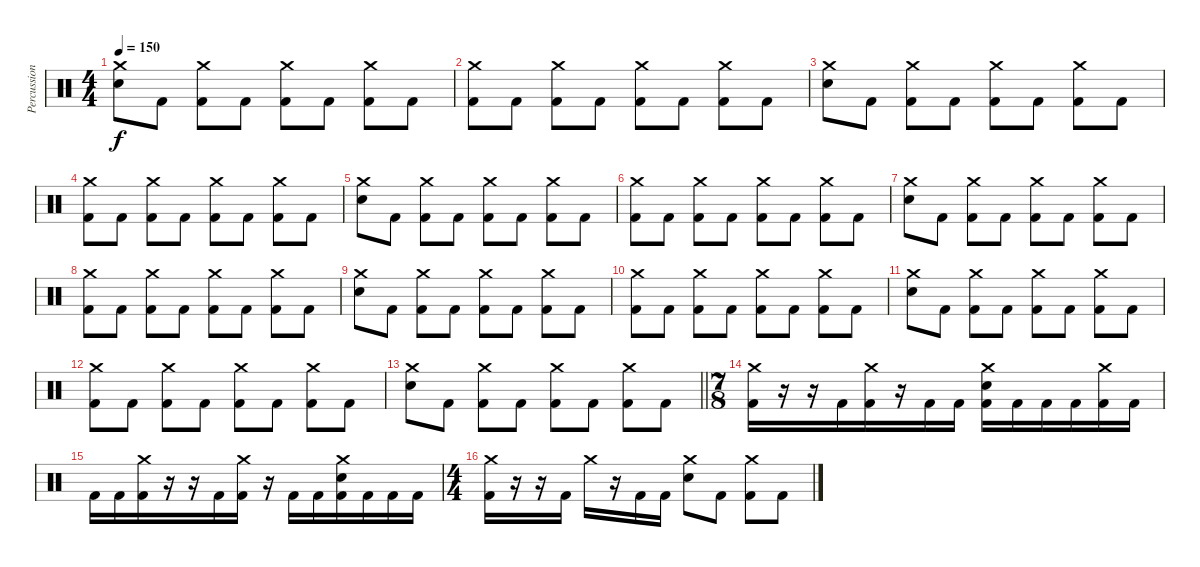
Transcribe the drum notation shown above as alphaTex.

\track ("Percussion" "Percussion") {instrument percussion}
\staff {score}
\articulation defaults
\ts (4 4)
\tempo 150
\clef neutral
\ks c
("Crash medium (hit)" "Electric Snare (hit)").8{dy f} "Kick (hit) 2".8 ("Crash medium (hit)" "Kick (hit) 2").8 "Kick (hit) 2".8 ("Crash medium (hit)" "Kick (hit) 2").8 "Kick (hit) 2".8 ("Crash medium (hit)" "Kick (hit) 2").8 "Kick (hit) 2".8 |
("Crash medium (hit)" "Kick (hit) 2").8 "Kick (hit) 2".8 ("Crash medium (hit)" "Kick (hit) 2").8 "Kick (hit) 2".8 ("Crash medium (hit)" "Kick (hit) 2").8 "Kick (hit) 2".8 ("Crash medium (hit)" "Kick (hit) 2").8 "Kick (hit) 2".8 |
("Crash medium (hit)" "Electric Snare (hit)").8 "Kick (hit) 2".8 ("Crash medium (hit)" "Kick (hit) 2").8 "Kick (hit) 2".8 ("Crash medium (hit)" "Kick (hit) 2").8 "Kick (hit) 2".8 ("Crash medium (hit)" "Kick (hit) 2").8 "Kick (hit) 2".8 |
("Crash medium (hit)" "Kick (hit) 2").8 "Kick (hit) 2".8 ("Crash medium (hit)" "Kick (hit) 2").8 "Kick (hit) 2".8 ("Crash medium (hit)" "Kick (hit) 2").8 "Kick (hit) 2".8 ("Crash medium (hit)" "Kick (hit) 2").8 "Kick (hit) 2".8 |
("Crash medium (hit)" "Electric Snare (hit)").8 "Kick (hit) 2".8 ("Crash medium (hit)" "Kick (hit) 2").8 "Kick (hit) 2".8 ("Crash medium (hit)" "Kick (hit) 2").8 "Kick (hit) 2".8 ("Crash medium (hit)" "Kick (hit) 2").8 "Kick (hit) 2".8 |
("Crash medium (hit)" "Kick (hit) 2").8 "Kick (hit) 2".8 ("Crash medium (hit)" "Kick (hit) 2").8 "Kick (hit) 2".8 ("Crash medium (hit)" "Kick (hit) 2").8 "Kick (hit) 2".8 ("Crash medium (hit)" "Kick (hit) 2").8 "Kick (hit) 2".8 |
("Crash medium (hit)" "Electric Snare (hit)").8 "Kick (hit) 2".8 ("Crash medium (hit)" "Kick (hit) 2").8 "Kick (hit) 2".8 ("Crash medium (hit)" "Kick (hit) 2").8 "Kick (hit) 2".8 ("Crash medium (hit)" "Kick (hit) 2").8 "Kick (hit) 2".8 |
("Crash medium (hit)" "Kick (hit) 2").8 "Kick (hit) 2".8 ("Crash medium (hit)" "Kick (hit) 2").8 "Kick (hit) 2".8 ("Crash medium (hit)" "Kick (hit) 2").8 "Kick (hit) 2".8 ("Crash medium (hit)" "Kick (hit) 2").8 "Kick (hit) 2".8 |
("Crash medium (hit)" "Electric Snare (hit)").8 "Kick (hit) 2".8 ("Crash medium (hit)" "Kick (hit) 2").8 "Kick (hit) 2".8 ("Crash medium (hit)" "Kick (hit) 2").8 "Kick (hit) 2".8 ("Crash medium (hit)" "Kick (hit) 2").8 "Kick (hit) 2".8 |
("Crash medium (hit)" "Kick (hit) 2").8 "Kick (hit) 2".8 ("Crash medium (hit)" "Kick (hit) 2").8 "Kick (hit) 2".8 ("Crash medium (hit)" "Kick (hit) 2").8 "Kick (hit) 2".8 ("Crash medium (hit)" "Kick (hit) 2").8 "Kick (hit) 2".8 |
("Crash medium (hit)" "Electric Snare (hit)").8 "Kick (hit) 2".8 ("Crash medium (hit)" "Kick (hit) 2").8 "Kick (hit) 2".8 ("Crash medium (hit)" "Kick (hit) 2").8 "Kick (hit) 2".8 ("Crash medium (hit)" "Kick (hit) 2").8 "Kick (hit) 2".8 |
("Crash medium (hit)" "Kick (hit) 2").8 "Kick (hit) 2".8 ("Crash medium (hit)" "Kick (hit) 2").8 "Kick (hit) 2".8 ("Crash medium (hit)" "Kick (hit) 2").8 "Kick (hit) 2".8 ("Crash medium (hit)" "Kick (hit) 2").8 "Kick (hit) 2".8 |
\barLineRight lightlight
("Crash medium (hit)" "Electric Snare (hit)").8 "Kick (hit) 2".8 ("Crash medium (hit)" "Kick (hit) 2").8 "Kick (hit) 2".8 ("Crash medium (hit)" "Kick (hit) 2").8 "Kick (hit) 2".8 ("Crash medium (hit)" "Kick (hit) 2").8 "Kick (hit) 2".8 |
\ts (7 8)
\section ("" "")
("Crash medium (hit)" "Kick (hit) 2").16 r.16 r.16 "Kick (hit) 2".16 ("Crash medium (hit)" "Kick (hit) 2").16 r.16 "Kick (hit) 2".16 "Kick (hit) 2".16 ("Crash medium (hit)" "Electric Snare (hit)" "Kick (hit) 2").16 "Kick (hit) 2".16 "Kick (hit) 2".16 "Kick (hit) 2".16 ("Crash medium (hit)" "Kick (hit) 2").16 "Kick (hit) 2".16 |
"Kick (hit) 2".16 "Kick (hit) 2".16 ("Crash medium (hit)" "Kick (hit) 2").16 r.16 r.16 "Kick (hit) 2".16 ("Crash medium (hit)" "Kick (hit) 2").16 r.16 "Kick (hit) 2".16 "Kick (hit) 2".16 ("Crash medium (hit)" "Electric Snare (hit)" "Kick (hit) 2").16 "Kick (hit) 2".16 "Kick (hit) 2".16 "Kick (hit) 2".16 |
\ts (4 4)
("Crash medium (hit)" "Kick (hit) 2").16 r.16 r.16 "Kick (hit) 2".16 "Crash medium (hit)".16 r.16 "Kick (hit) 2".16 "Kick (hit) 2".16 ("Crash medium (hit)" "Electric Snare (hit)").8 "Kick (hit) 2".8 ("Crash medium (hit)" "Kick (hit) 2").8 "Kick (hit) 2".8
